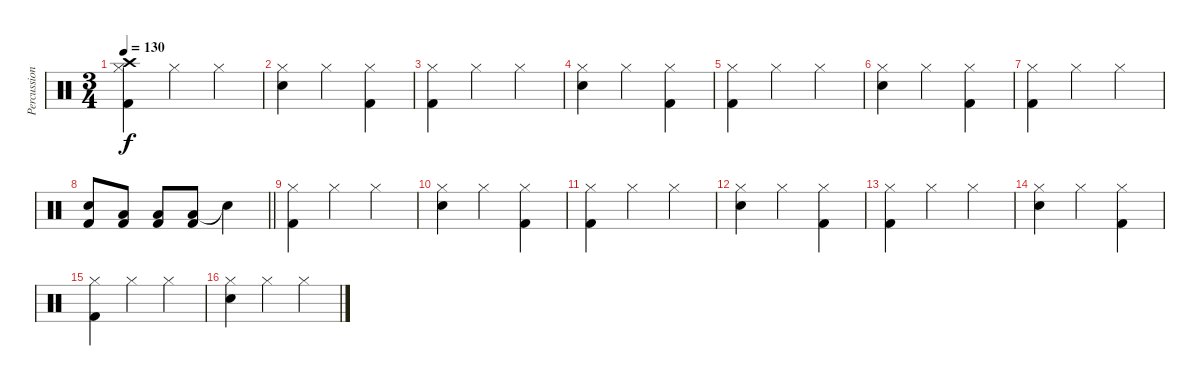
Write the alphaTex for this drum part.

\track ("Percussion" "Percussion") {instrument percussion}
\staff {score}
\articulation defaults
\ts (3 4)
\tempo 130
\clef neutral
\ks c
("Crash high (hit)" "Hi-Hat (closed)" "Kick (hit) 2").4{dy f} "Hi-Hat (closed)".4 "Hi-Hat (closed)".4 |
("Hi-Hat (closed)" "Electric Snare (hit)").4 "Hi-Hat (closed)".4 ("Hi-Hat (closed)" "Kick (hit) 2").4 |
("Hi-Hat (closed)" "Kick (hit) 2").4 "Hi-Hat (closed)".4 "Hi-Hat (closed)".4 |
("Hi-Hat (closed)" "Electric Snare (hit)").4 "Hi-Hat (closed)".4 ("Hi-Hat (closed)" "Kick (hit) 2").4 |
("Hi-Hat (closed)" "Kick (hit) 2").4 "Hi-Hat (closed)".4 "Hi-Hat (closed)".4 |
("Hi-Hat (closed)" "Electric Snare (hit)").4 "Hi-Hat (closed)".4 ("Hi-Hat (closed)" "Kick (hit) 2").4 |
("Hi-Hat (closed)" "Kick (hit) 2").4 "Hi-Hat (closed)".4 "Hi-Hat (closed)".4 |
\barLineRight lightlight
("Electric Snare (hit)" "Kick (hit) 2").8 ("Low Tom (hit)" "Kick (hit) 2").8 ("Low Tom (hit)" "Kick (hit) 2").8 ("Low Tom (hit)" "Kick (hit) 2").8 "Snare (hit)"{t}.4 |
("Hi-Hat (closed)" "Kick (hit) 2").4 "Hi-Hat (closed)".4 "Hi-Hat (closed)".4 |
("Hi-Hat (closed)" "Electric Snare (hit)").4 "Hi-Hat (closed)".4 ("Hi-Hat (closed)" "Kick (hit) 2").4 |
("Hi-Hat (closed)" "Kick (hit) 2").4 "Hi-Hat (closed)".4 "Hi-Hat (closed)".4 |
("Hi-Hat (closed)" "Electric Snare (hit)").4 "Hi-Hat (closed)".4 ("Hi-Hat (closed)" "Kick (hit) 2").4 |
("Hi-Hat (closed)" "Kick (hit) 2").4 "Hi-Hat (closed)".4 "Hi-Hat (closed)".4 |
("Hi-Hat (closed)" "Electric Snare (hit)").4 "Hi-Hat (closed)".4 ("Hi-Hat (closed)" "Kick (hit) 2").4 |
("Hi-Hat (closed)" "Kick (hit) 2").4 "Hi-Hat (closed)".4 "Hi-Hat (closed)".4 |
("Hi-Hat (closed)" "Electric Snare (hit)").4 "Hi-Hat (closed)".4 "Hi-Hat (closed)".4
